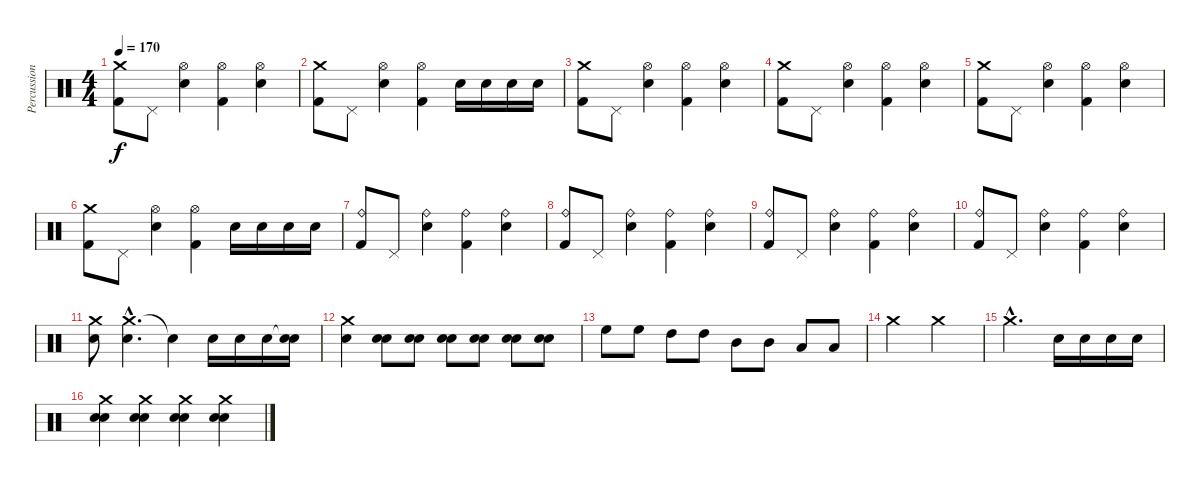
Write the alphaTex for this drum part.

\track ("Percussion" "Percussion") {instrument percussion}
\staff {score}
\articulation defaults
\ts (4 4)
\tempo 170
\clef neutral
\ks c
("Crash medium (hit)" "Kick (hit) 2").8{dy f} "Pedal Hi-Hat (hit)".8 ("Hi-Hat (open)" "Electric Snare (hit)").4 ("Hi-Hat (open)" "Kick (hit) 2").4 ("Hi-Hat (open)" "Electric Snare (hit)").4 |
("Crash medium (hit)" "Kick (hit) 2").8 "Pedal Hi-Hat (hit)".8 ("Hi-Hat (open)" "Electric Snare (hit)").4 ("Hi-Hat (open)" "Kick (hit) 2").4 "Electric Snare (hit)".16 "Electric Snare (hit)".16 "Electric Snare (hit)".16 "Electric Snare (hit)".16 |
("Crash medium (hit)" "Kick (hit) 2").8 "Pedal Hi-Hat (hit)".8 ("Hi-Hat (open)" "Electric Snare (hit)").4 ("Hi-Hat (open)" "Kick (hit) 2").4 ("Hi-Hat (open)" "Electric Snare (hit)").4 |
("Crash medium (hit)" "Kick (hit) 2").8 "Pedal Hi-Hat (hit)".8 ("Hi-Hat (open)" "Electric Snare (hit)").4 ("Hi-Hat (open)" "Kick (hit) 2").4 ("Hi-Hat (open)" "Electric Snare (hit)").4 |
("Crash medium (hit)" "Kick (hit) 2").8 "Pedal Hi-Hat (hit)".8 ("Hi-Hat (open)" "Electric Snare (hit)").4 ("Hi-Hat (open)" "Kick (hit) 2").4 ("Hi-Hat (open)" "Electric Snare (hit)").4 |
("Crash medium (hit)" "Kick (hit) 2").8 "Pedal Hi-Hat (hit)".8 ("Hi-Hat (open)" "Electric Snare (hit)").4 ("Hi-Hat (open)" "Kick (hit) 2").4 "Electric Snare (hit)".16 "Electric Snare (hit)".16 "Electric Snare (hit)".16 "Electric Snare (hit)".16 |
("Ride (bell)" "Kick (hit) 2").8 "Pedal Hi-Hat (hit)".8 ("Ride (bell)" "Electric Snare (hit)").4 ("Ride (bell)" "Kick (hit) 2").4 ("Ride (bell)" "Electric Snare (hit)").4 |
("Ride (bell)" "Kick (hit) 2").8 "Pedal Hi-Hat (hit)".8 ("Ride (bell)" "Electric Snare (hit)").4 ("Ride (bell)" "Kick (hit) 2").4 ("Ride (bell)" "Electric Snare (hit)").4 |
("Ride (bell)" "Kick (hit) 2").8 "Pedal Hi-Hat (hit)".8 ("Ride (bell)" "Electric Snare (hit)").4 ("Ride (bell)" "Kick (hit) 2").4 ("Ride (bell)" "Electric Snare (hit)").4 |
("Ride (bell)" "Kick (hit) 2").8 "Pedal Hi-Hat (hit)".8 ("Ride (bell)" "Electric Snare (hit)").4 ("Ride (bell)" "Kick (hit) 2").4 ("Ride (bell)" "Electric Snare (hit)").4 |
("Crash medium (hit)" "Electric Snare (hit)").8 ("Crash medium (hit)"{hac} "Electric Snare (hit)"{hac}).4{d} "Snare (hit)"{t}.4 "Electric Snare (hit)".16 "Electric Snare (hit)".16 "Electric Snare (hit)".16 ("Snare (hit)"{t} "Electric Snare (hit)").16 |
("Crash medium (hit)" "Electric Snare (hit)").4 ("Electric Snare (hit)" "Electric Snare (hit)").8 ("Electric Snare (hit)" "Electric Snare (hit)").8 ("Electric Snare (hit)" "Electric Snare (hit)").8 ("Electric Snare (hit)" "Electric Snare (hit)").8 ("Electric Snare (hit)" "Electric Snare (hit)").8 ("Electric Snare (hit)" "Electric Snare (hit)").8 |
"High Floor Tom (hit)".8 "High Floor Tom (hit)".8 "High Tom (hit)".8 "High Tom (hit)".8 "Mid Tom (hit)".8 "Mid Tom (hit)".8 "Low Tom (hit)".8 "Low Tom (hit)".8 |
"Crash medium (hit)".2 "Crash medium (hit)".2 |
"Crash medium (hit)"{hac}.2{d} "Electric Snare (hit)".16 "Electric Snare (hit)".16 "Electric Snare (hit)".16 "Electric Snare (hit)".16 |
("Crash medium (hit)" "Electric Snare (hit)" "Electric Snare (hit)").4 ("Crash medium (hit)" "Electric Snare (hit)" "Electric Snare (hit)").4 ("Crash medium (hit)" "Electric Snare (hit)" "Electric Snare (hit)").4 ("Crash medium (hit)" "Electric Snare (hit)" "Electric Snare (hit)").4
